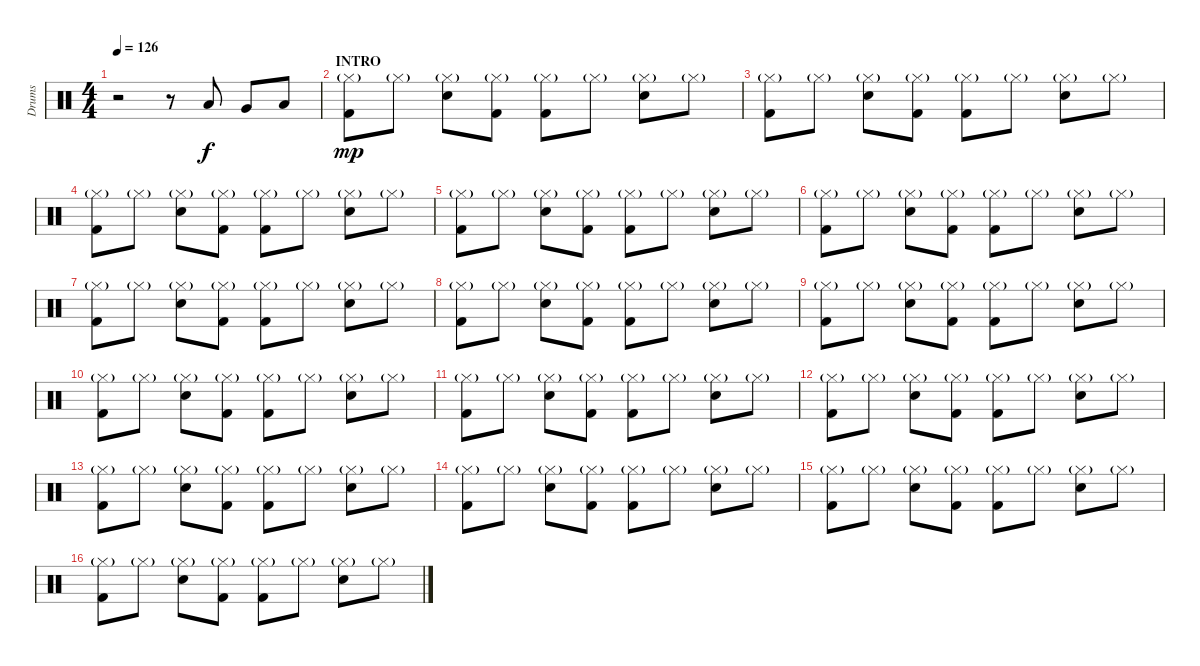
\track ("Drums" "Drums") {instrument percussion}
\staff {score}
\articulation defaults
\ts (4 4)
\tempo 126
\clef neutral
\ks c
r.2{dy f} r.8 "Low Tom (hit)".8 "Very Low Tom (hit)".8 "Low Floor Tom (hit)".8 |
\section ("" "INTRO")
("Hi-Hat (closed)"{g} "Kick (hit) 2").8{dy mp} "Hi-Hat (closed)"{g}.8 ("Hi-Hat (closed)"{g} "Snare (hit) 2").8 ("Hi-Hat (closed)"{g} "Kick (hit) 2").8 ("Hi-Hat (closed)"{g} "Kick (hit) 2").8 "Hi-Hat (closed)"{g}.8 ("Hi-Hat (closed)"{g} "Snare (hit) 2").8 "Hi-Hat (closed)"{g}.8 |
("Hi-Hat (closed)"{g} "Kick (hit) 2").8 "Hi-Hat (closed)"{g}.8 ("Hi-Hat (closed)"{g} "Snare (hit) 2").8 ("Hi-Hat (closed)"{g} "Kick (hit) 2").8 ("Hi-Hat (closed)"{g} "Kick (hit) 2").8 "Hi-Hat (closed)"{g}.8 ("Hi-Hat (closed)"{g} "Snare (hit) 2").8 "Hi-Hat (closed)"{g}.8 |
("Hi-Hat (closed)"{g} "Kick (hit) 2").8 "Hi-Hat (closed)"{g}.8 ("Hi-Hat (closed)"{g} "Snare (hit) 2").8 ("Hi-Hat (closed)"{g} "Kick (hit) 2").8 ("Hi-Hat (closed)"{g} "Kick (hit) 2").8 "Hi-Hat (closed)"{g}.8 ("Hi-Hat (closed)"{g} "Snare (hit) 2").8 "Hi-Hat (closed)"{g}.8 |
("Hi-Hat (closed)"{g} "Kick (hit) 2").8 "Hi-Hat (closed)"{g}.8 ("Hi-Hat (closed)"{g} "Snare (hit) 2").8 ("Hi-Hat (closed)"{g} "Kick (hit) 2").8 ("Hi-Hat (closed)"{g} "Kick (hit) 2").8 "Hi-Hat (closed)"{g}.8 ("Hi-Hat (closed)"{g} "Snare (hit) 2").8 "Hi-Hat (closed)"{g}.8 |
("Hi-Hat (closed)"{g} "Kick (hit) 2").8 "Hi-Hat (closed)"{g}.8 ("Hi-Hat (closed)"{g} "Snare (hit) 2").8 ("Hi-Hat (closed)"{g} "Kick (hit) 2").8 ("Hi-Hat (closed)"{g} "Kick (hit) 2").8 "Hi-Hat (closed)"{g}.8 ("Hi-Hat (closed)"{g} "Snare (hit) 2").8 "Hi-Hat (closed)"{g}.8 |
("Hi-Hat (closed)"{g} "Kick (hit) 2").8 "Hi-Hat (closed)"{g}.8 ("Hi-Hat (closed)"{g} "Snare (hit) 2").8 ("Hi-Hat (closed)"{g} "Kick (hit) 2").8 ("Hi-Hat (closed)"{g} "Kick (hit) 2").8 "Hi-Hat (closed)"{g}.8 ("Hi-Hat (closed)"{g} "Snare (hit) 2").8 "Hi-Hat (closed)"{g}.8 |
("Hi-Hat (closed)"{g} "Kick (hit) 2").8 "Hi-Hat (closed)"{g}.8 ("Hi-Hat (closed)"{g} "Snare (hit) 2").8 ("Hi-Hat (closed)"{g} "Kick (hit) 2").8 ("Hi-Hat (closed)"{g} "Kick (hit) 2").8 "Hi-Hat (closed)"{g}.8 ("Hi-Hat (closed)"{g} "Snare (hit) 2").8 "Hi-Hat (closed)"{g}.8 |
("Hi-Hat (closed)"{g} "Kick (hit) 2").8 "Hi-Hat (closed)"{g}.8 ("Hi-Hat (closed)"{g} "Snare (hit) 2").8 ("Hi-Hat (closed)"{g} "Kick (hit) 2").8 ("Hi-Hat (closed)"{g} "Kick (hit) 2").8 "Hi-Hat (closed)"{g}.8 ("Hi-Hat (closed)"{g} "Snare (hit) 2").8 "Hi-Hat (closed)"{g}.8 |
("Hi-Hat (closed)"{g} "Kick (hit) 2").8 "Hi-Hat (closed)"{g}.8 ("Hi-Hat (closed)"{g} "Snare (hit) 2").8 ("Hi-Hat (closed)"{g} "Kick (hit) 2").8 ("Hi-Hat (closed)"{g} "Kick (hit) 2").8 "Hi-Hat (closed)"{g}.8 ("Hi-Hat (closed)"{g} "Snare (hit) 2").8 "Hi-Hat (closed)"{g}.8 |
("Hi-Hat (closed)"{g} "Kick (hit) 2").8 "Hi-Hat (closed)"{g}.8 ("Hi-Hat (closed)"{g} "Snare (hit) 2").8 ("Hi-Hat (closed)"{g} "Kick (hit) 2").8 ("Hi-Hat (closed)"{g} "Kick (hit) 2").8 "Hi-Hat (closed)"{g}.8 ("Hi-Hat (closed)"{g} "Snare (hit) 2").8 "Hi-Hat (closed)"{g}.8 |
("Hi-Hat (closed)"{g} "Kick (hit) 2").8 "Hi-Hat (closed)"{g}.8 ("Hi-Hat (closed)"{g} "Snare (hit) 2").8 ("Hi-Hat (closed)"{g} "Kick (hit) 2").8 ("Hi-Hat (closed)"{g} "Kick (hit) 2").8 "Hi-Hat (closed)"{g}.8 ("Hi-Hat (closed)"{g} "Snare (hit) 2").8 "Hi-Hat (closed)"{g}.8 |
("Hi-Hat (closed)"{g} "Kick (hit) 2").8 "Hi-Hat (closed)"{g}.8 ("Hi-Hat (closed)"{g} "Snare (hit) 2").8 ("Hi-Hat (closed)"{g} "Kick (hit) 2").8 ("Hi-Hat (closed)"{g} "Kick (hit) 2").8 "Hi-Hat (closed)"{g}.8 ("Hi-Hat (closed)"{g} "Snare (hit) 2").8 "Hi-Hat (closed)"{g}.8 |
("Hi-Hat (closed)"{g} "Kick (hit) 2").8 "Hi-Hat (closed)"{g}.8 ("Hi-Hat (closed)"{g} "Snare (hit) 2").8 ("Hi-Hat (closed)"{g} "Kick (hit) 2").8 ("Hi-Hat (closed)"{g} "Kick (hit) 2").8 "Hi-Hat (closed)"{g}.8 ("Hi-Hat (closed)"{g} "Snare (hit) 2").8 "Hi-Hat (closed)"{g}.8 |
("Hi-Hat (closed)"{g} "Kick (hit) 2").8 "Hi-Hat (closed)"{g}.8 ("Hi-Hat (closed)"{g} "Snare (hit) 2").8 ("Hi-Hat (closed)"{g} "Kick (hit) 2").8 ("Hi-Hat (closed)"{g} "Kick (hit) 2").8 "Hi-Hat (closed)"{g}.8 ("Hi-Hat (closed)"{g} "Snare (hit) 2").8 "Hi-Hat (closed)"{g}.8 |
("Hi-Hat (closed)"{g} "Kick (hit) 2").8 "Hi-Hat (closed)"{g}.8 ("Hi-Hat (closed)"{g} "Snare (hit) 2").8 ("Hi-Hat (closed)"{g} "Kick (hit) 2").8 ("Hi-Hat (closed)"{g} "Kick (hit) 2").8 "Hi-Hat (closed)"{g}.8 ("Hi-Hat (closed)"{g} "Snare (hit) 2").8 "Hi-Hat (closed)"{g}.8
